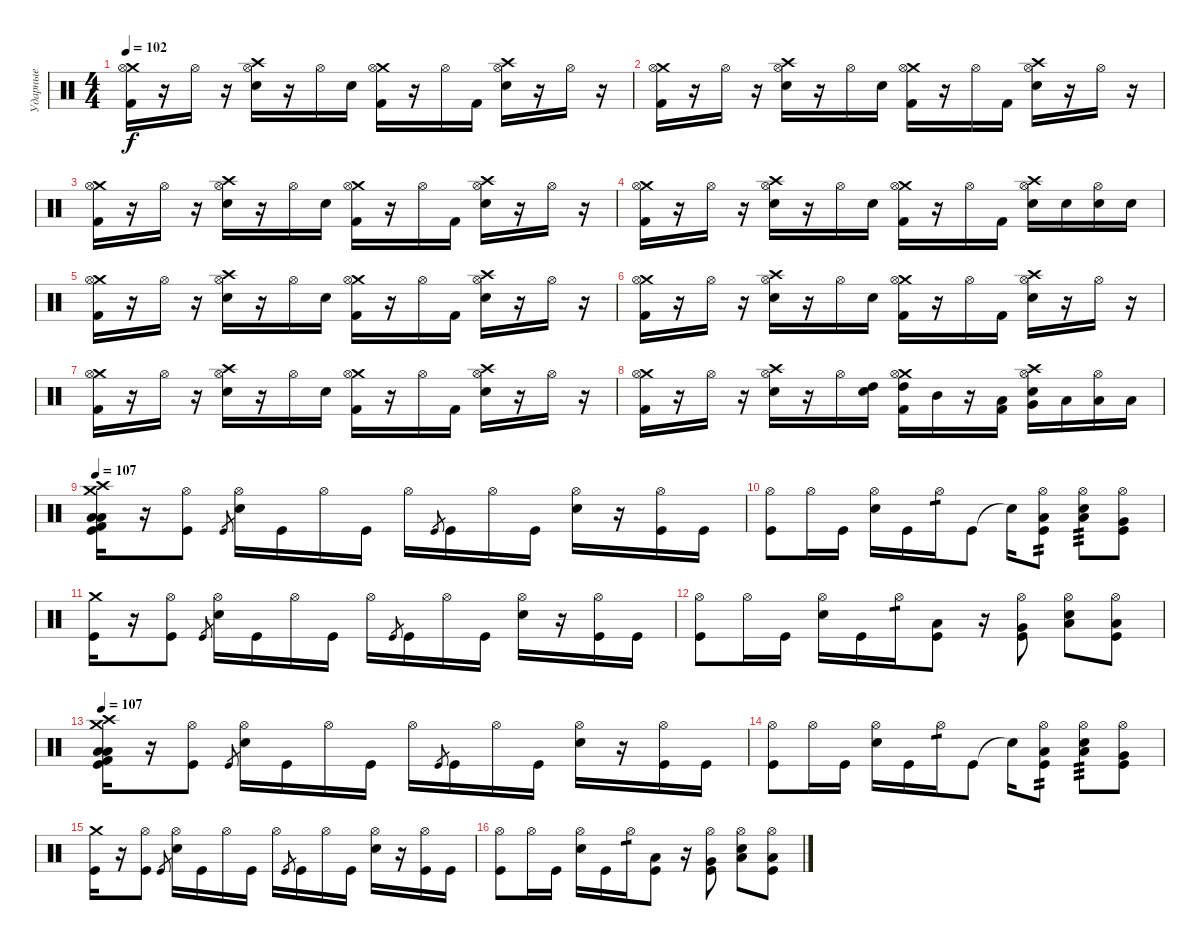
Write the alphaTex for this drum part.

\track ("Ударные" "Ударные") {instrument percussion}
\staff {score}
\articulation defaults
\ts (4 4)
\tempo 102
\clef neutral
\ks c
("Crash medium (hit)" "Hi-Hat (open)" "Kick (hit) 2").16{dy f} r.16 "Hi-Hat (open)".16 r.16 ("Crash high (hit)" "Hi-Hat (open)" "Electric Snare (hit)").16 r.16 "Hi-Hat (open)".16 "Electric Snare (hit)".16 ("Crash medium (hit)" "Hi-Hat (open)" "Kick (hit) 2").16 r.16 "Hi-Hat (open)".16 "Kick (hit) 2".16 ("Crash high (hit)" "Hi-Hat (open)" "Electric Snare (hit)").16 r.16 "Hi-Hat (open)".16 r.16 |
("Crash medium (hit)" "Hi-Hat (open)" "Kick (hit) 2").16 r.16 "Hi-Hat (open)".16 r.16 ("Crash high (hit)" "Hi-Hat (open)" "Electric Snare (hit)").16 r.16 "Hi-Hat (open)".16 "Electric Snare (hit)".16 ("Crash medium (hit)" "Hi-Hat (open)" "Kick (hit) 2").16 r.16 "Hi-Hat (open)".16 "Kick (hit) 2".16 ("Crash high (hit)" "Hi-Hat (open)" "Electric Snare (hit)").16 r.16 "Hi-Hat (open)".16 r.16 |
("Crash medium (hit)" "Hi-Hat (open)" "Kick (hit) 2").16 r.16 "Hi-Hat (open)".16 r.16 ("Crash high (hit)" "Hi-Hat (open)" "Electric Snare (hit)").16 r.16 "Hi-Hat (open)".16 "Electric Snare (hit)".16 ("Crash medium (hit)" "Hi-Hat (open)" "Kick (hit) 2").16 r.16 "Hi-Hat (open)".16 "Kick (hit) 2".16 ("Crash high (hit)" "Hi-Hat (open)" "Electric Snare (hit)").16 r.16 "Hi-Hat (open)".16 r.16 |
("Crash medium (hit)" "Hi-Hat (open)" "Kick (hit) 2").16 r.16 "Hi-Hat (open)".16 r.16 ("Crash high (hit)" "Hi-Hat (open)" "Electric Snare (hit)").16 r.16 "Hi-Hat (open)".16 "Electric Snare (hit)".16 ("Crash medium (hit)" "Hi-Hat (open)" "Kick (hit) 2").16 r.16 "Hi-Hat (open)".16 "Kick (hit) 2".16 ("Crash high (hit)" "Hi-Hat (open)" "Electric Snare (hit)").16 "Electric Snare (hit)".16 ("Hi-Hat (open)" "Electric Snare (hit)").16 "Electric Snare (hit)".16 |
("Crash medium (hit)" "Hi-Hat (open)" "Kick (hit) 2").16 r.16 "Hi-Hat (open)".16 r.16 ("Crash high (hit)" "Hi-Hat (open)" "Electric Snare (hit)").16 r.16 "Hi-Hat (open)".16 "Electric Snare (hit)".16 ("Crash medium (hit)" "Hi-Hat (open)" "Kick (hit) 2").16 r.16 "Hi-Hat (open)".16 "Kick (hit) 2".16 ("Crash high (hit)" "Hi-Hat (open)" "Electric Snare (hit)").16 r.16 "Hi-Hat (open)".16 r.16 |
("Crash medium (hit)" "Hi-Hat (open)" "Kick (hit) 2").16 r.16 "Hi-Hat (open)".16 r.16 ("Crash high (hit)" "Hi-Hat (open)" "Electric Snare (hit)").16 r.16 "Hi-Hat (open)".16 "Electric Snare (hit)".16 ("Crash medium (hit)" "Hi-Hat (open)" "Kick (hit) 2").16 r.16 "Hi-Hat (open)".16 "Kick (hit) 2".16 ("Crash high (hit)" "Hi-Hat (open)" "Electric Snare (hit)").16 r.16 "Hi-Hat (open)".16 r.16 |
("Crash medium (hit)" "Hi-Hat (open)" "Kick (hit) 2").16 r.16 "Hi-Hat (open)".16 r.16 ("Crash high (hit)" "Hi-Hat (open)" "Electric Snare (hit)").16 r.16 "Hi-Hat (open)".16 "Electric Snare (hit)".16 ("Crash medium (hit)" "Hi-Hat (open)" "Kick (hit) 2").16 r.16 "Hi-Hat (open)".16 "Kick (hit) 2".16 ("Crash high (hit)" "Hi-Hat (open)" "Electric Snare (hit)").16 r.16 "Hi-Hat (open)".16 r.16 |
("Crash medium (hit)" "Hi-Hat (open)" "Kick (hit) 2").16 r.16 "Hi-Hat (open)".16 r.16 ("Crash high (hit)" "Hi-Hat (open)" "Electric Snare (hit)").16 r.16 "Hi-Hat (open)".16 ("High Tom (hit)" "Electric Snare (hit)").16 ("Crash medium (hit)" "High Tom (hit)" "Hi-Hat (open)" "Kick (hit) 2").16 "Mid Tom (hit)".16 r.16 ("Low Tom (hit)" "Kick (hit) 2").16 ("Crash high (hit)" "Very Low Tom (hit)" "Hi-Hat (open)" "Electric Snare (hit)").16 "Low Floor Tom (hit)".16 ("Low Floor Tom (hit)" "Hi-Hat (open)").16 "Low Floor Tom (hit)".16 |
\tempo 107
("Crash medium (hit)" "Crash high (hit)" "Low Floor Tom (hit)" "Low Floor Tom (hit)" "Kick (hit)" "Kick (hit) 2").16 r.16 ("Hi-Hat (open)" "Kick (hit)").8 "Kick (hit)".8{gr} ("Hi-Hat (open)" "Electric Snare (hit)").16 "Kick (hit)".16 "Hi-Hat (open)".16 "Kick (hit)".16 "Hi-Hat (open)".16 "Kick (hit)".8{gr} "Kick (hit)".16 "Hi-Hat (open)".16 "Kick (hit)".16 ("Hi-Hat (open)" "Electric Snare (hit)").16 r.16 ("Hi-Hat (open)" "Kick (hit)").16 "Kick (hit)".16 |
("Hi-Hat (open)" "Kick (hit)").8 "Hi-Hat (open)".16 "Kick (hit)".16 ("Hi-Hat (open)" "Electric Snare (hit)").16 "Kick (hit)".16 "Hi-Hat (open)".16{tp 1} "Kick (hit)".8 "Snare (hit)"{t}.16 ("Low Tom (hit)" "Hi-Hat (open)" "Kick (hit)").8{tp 2} ("Low Tom (hit)" "Hi-Hat (open)" "Electric Snare (hit)").8{tp 3} ("Very Low Tom (hit)" "Hi-Hat (open)" "Kick (hit)").8 |
("Crash medium (hit)" "Kick (hit)").16 r.16 ("Hi-Hat (open)" "Kick (hit)").8 "Kick (hit)".8{gr} ("Hi-Hat (open)" "Electric Snare (hit)").16 "Kick (hit)".16 "Hi-Hat (open)".16 "Kick (hit)".16 "Hi-Hat (open)".16 "Kick (hit)".8{gr} "Kick (hit)".16 "Hi-Hat (open)".16 "Kick (hit)".16 ("Hi-Hat (open)" "Electric Snare (hit)").16 r.16 ("Hi-Hat (open)" "Kick (hit)").16 "Kick (hit)".16 |
("Hi-Hat (open)" "Kick (hit)").8 "Hi-Hat (open)".16 "Kick (hit)".16 ("Hi-Hat (open)" "Electric Snare (hit)").16 "Kick (hit)".16 "Hi-Hat (open)".16{tp 1} ("Low Tom (hit)" "Kick (hit)").8 r.16 ("Very Low Tom (hit)" "Hi-Hat (open)" "Kick (hit)").8 ("Low Floor Tom (hit)" "Hi-Hat (open)" "Electric Snare (hit)").8 ("Low Floor Tom (hit)" "Hi-Hat (open)" "Kick (hit)").8 |
\tempo 107
("Crash medium (hit)" "Crash high (hit)" "Low Floor Tom (hit)" "Low Floor Tom (hit)" "Kick (hit)" "Kick (hit) 2").16 r.16 ("Hi-Hat (open)" "Kick (hit)").8 "Kick (hit)".8{gr} ("Hi-Hat (open)" "Electric Snare (hit)").16 "Kick (hit)".16 "Hi-Hat (open)".16 "Kick (hit)".16 "Hi-Hat (open)".16 "Kick (hit)".8{gr} "Kick (hit)".16 "Hi-Hat (open)".16 "Kick (hit)".16 ("Hi-Hat (open)" "Electric Snare (hit)").16 r.16 ("Hi-Hat (open)" "Kick (hit)").16 "Kick (hit)".16 |
("Hi-Hat (open)" "Kick (hit)").8 "Hi-Hat (open)".16 "Kick (hit)".16 ("Hi-Hat (open)" "Electric Snare (hit)").16 "Kick (hit)".16 "Hi-Hat (open)".16{tp 1} "Kick (hit)".8 "Snare (hit)"{t}.16 ("Low Tom (hit)" "Hi-Hat (open)" "Kick (hit)").8{tp 2} ("Low Tom (hit)" "Hi-Hat (open)" "Electric Snare (hit)").8{tp 3} ("Very Low Tom (hit)" "Hi-Hat (open)" "Kick (hit)").8 |
("Crash medium (hit)" "Kick (hit)").16 r.16 ("Hi-Hat (open)" "Kick (hit)").8 "Kick (hit)".8{gr} ("Hi-Hat (open)" "Electric Snare (hit)").16 "Kick (hit)".16 "Hi-Hat (open)".16 "Kick (hit)".16 "Hi-Hat (open)".16 "Kick (hit)".8{gr} "Kick (hit)".16 "Hi-Hat (open)".16 "Kick (hit)".16 ("Hi-Hat (open)" "Electric Snare (hit)").16 r.16 ("Hi-Hat (open)" "Kick (hit)").16 "Kick (hit)".16 |
("Hi-Hat (open)" "Kick (hit)").8 "Hi-Hat (open)".16 "Kick (hit)".16 ("Hi-Hat (open)" "Electric Snare (hit)").16 "Kick (hit)".16 "Hi-Hat (open)".16{tp 1} ("Low Tom (hit)" "Kick (hit)").8 r.16 ("Very Low Tom (hit)" "Hi-Hat (open)" "Kick (hit)").8 ("Low Floor Tom (hit)" "Hi-Hat (open)" "Electric Snare (hit)").8 ("Low Floor Tom (hit)" "Hi-Hat (open)" "Kick (hit)").8
